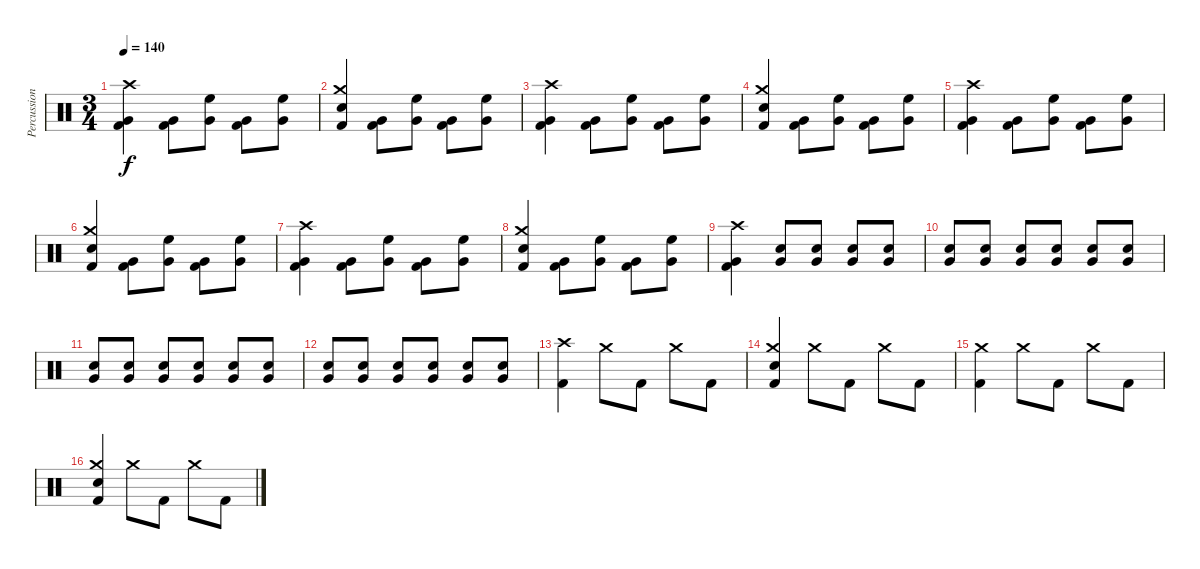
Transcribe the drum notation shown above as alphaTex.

\track ("Percussions" "Percussion") {instrument percussion}
\staff {score}
\articulation defaults
\ts (3 4)
\tempo 140
\clef neutral
\ks c
("Crash high (hit)" "Very Low Tom (hit)" "Kick (hit) 2").4{dy f} ("Very Low Tom (hit)" "Kick (hit) 2").8 ("High Floor Tom (hit)" "Very Low Tom (hit)").8 ("Very Low Tom (hit)" "Kick (hit) 2").8 ("High Floor Tom (hit)" "Very Low Tom (hit)").8 |
("Crash medium (hit)" "Electric Snare (hit)" "Kick (hit) 2").4 ("Very Low Tom (hit)" "Kick (hit) 2").8 ("High Floor Tom (hit)" "Very Low Tom (hit)").8 ("Very Low Tom (hit)" "Kick (hit) 2").8 ("High Floor Tom (hit)" "Very Low Tom (hit)").8 |
("Crash high (hit)" "Very Low Tom (hit)" "Kick (hit) 2").4 ("Very Low Tom (hit)" "Kick (hit) 2").8 ("High Floor Tom (hit)" "Very Low Tom (hit)").8 ("Very Low Tom (hit)" "Kick (hit) 2").8 ("High Floor Tom (hit)" "Very Low Tom (hit)").8 |
("Crash medium (hit)" "Electric Snare (hit)" "Kick (hit) 2").4 ("Very Low Tom (hit)" "Kick (hit) 2").8 ("High Floor Tom (hit)" "Very Low Tom (hit)").8 ("Very Low Tom (hit)" "Kick (hit) 2").8 ("High Floor Tom (hit)" "Very Low Tom (hit)").8 |
("Crash high (hit)" "Very Low Tom (hit)" "Kick (hit) 2").4 ("Very Low Tom (hit)" "Kick (hit) 2").8 ("High Floor Tom (hit)" "Very Low Tom (hit)").8 ("Very Low Tom (hit)" "Kick (hit) 2").8 ("High Floor Tom (hit)" "Very Low Tom (hit)").8 |
("Crash medium (hit)" "Electric Snare (hit)" "Kick (hit) 2").4 ("Very Low Tom (hit)" "Kick (hit) 2").8 ("High Floor Tom (hit)" "Very Low Tom (hit)").8 ("Very Low Tom (hit)" "Kick (hit) 2").8 ("High Floor Tom (hit)" "Very Low Tom (hit)").8 |
("Crash high (hit)" "Very Low Tom (hit)" "Kick (hit) 2").4 ("Very Low Tom (hit)" "Kick (hit) 2").8 ("High Floor Tom (hit)" "Very Low Tom (hit)").8 ("Very Low Tom (hit)" "Kick (hit) 2").8 ("High Floor Tom (hit)" "Very Low Tom (hit)").8 |
("Crash medium (hit)" "Electric Snare (hit)" "Kick (hit) 2").4 ("Very Low Tom (hit)" "Kick (hit) 2").8 ("High Floor Tom (hit)" "Very Low Tom (hit)").8 ("Very Low Tom (hit)" "Kick (hit) 2").8 ("High Floor Tom (hit)" "Very Low Tom (hit)").8 |
("Crash high (hit)" "Very Low Tom (hit)" "Kick (hit) 2").4 ("Electric Snare (hit)" "Very Low Tom (hit)").8 ("Electric Snare (hit)" "Very Low Tom (hit)").8 ("Electric Snare (hit)" "Very Low Tom (hit)").8 ("Electric Snare (hit)" "Very Low Tom (hit)").8 |
("Electric Snare (hit)" "Very Low Tom (hit)").8 ("Electric Snare (hit)" "Very Low Tom (hit)").8 ("Electric Snare (hit)" "Very Low Tom (hit)").8 ("Electric Snare (hit)" "Very Low Tom (hit)").8 ("Electric Snare (hit)" "Very Low Tom (hit)").8 ("Electric Snare (hit)" "Very Low Tom (hit)").8 |
("Electric Snare (hit)" "Very Low Tom (hit)").8 ("Electric Snare (hit)" "Very Low Tom (hit)").8 ("Electric Snare (hit)" "Very Low Tom (hit)").8 ("Electric Snare (hit)" "Very Low Tom (hit)").8 ("Electric Snare (hit)" "Very Low Tom (hit)").8 ("Electric Snare (hit)" "Very Low Tom (hit)").8 |
("Electric Snare (hit)" "Very Low Tom (hit)").8 ("Electric Snare (hit)" "Very Low Tom (hit)").8 ("Electric Snare (hit)" "Very Low Tom (hit)").8 ("Electric Snare (hit)" "Very Low Tom (hit)").8 ("Electric Snare (hit)" "Very Low Tom (hit)").8 ("Electric Snare (hit)" "Very Low Tom (hit)").8 |
("Crash high (hit)" "Kick (hit) 2").4 "Crash medium (hit)".8 "Kick (hit) 2".8 "Crash medium (hit)".8 "Kick (hit) 2".8 |
("Crash medium (hit)" "Electric Snare (hit)" "Kick (hit) 2").4 "Crash medium (hit)".8 "Kick (hit) 2".8 "Crash medium (hit)".8 "Kick (hit) 2".8 |
("Crash medium (hit)" "Kick (hit) 2").4 "Crash medium (hit)".8 "Kick (hit) 2".8 "Crash medium (hit)".8 "Kick (hit) 2".8 |
("Crash medium (hit)" "Electric Snare (hit)" "Kick (hit) 2").4 "Crash medium (hit)".8 "Kick (hit) 2".8 "Crash medium (hit)".8 "Kick (hit) 2".8
